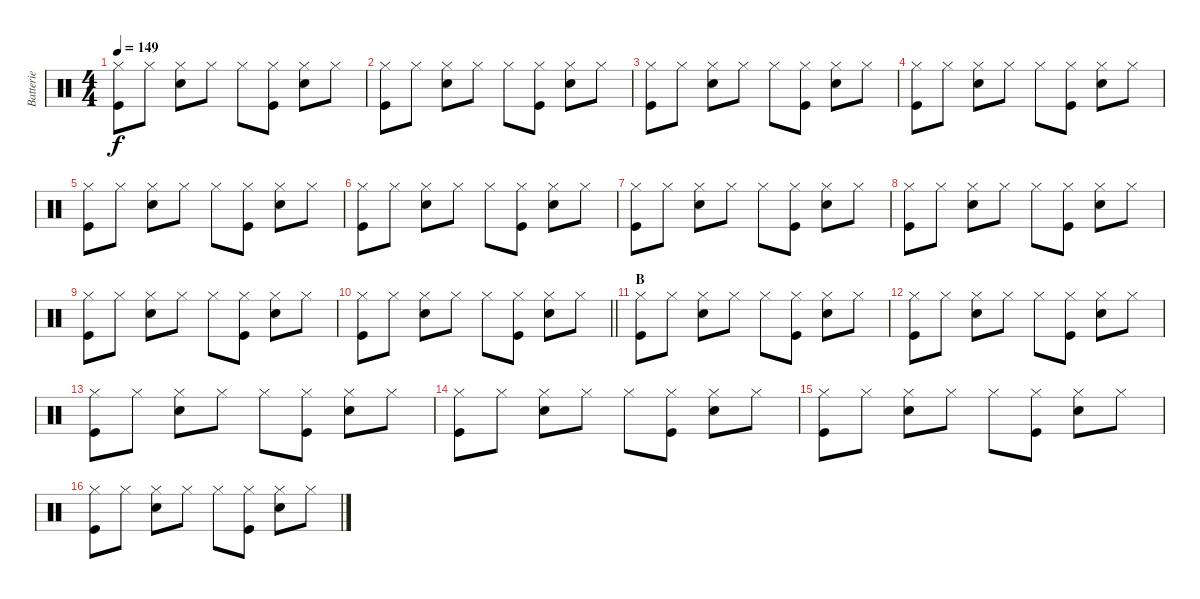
\track ("Batterie" "Batterie") {instrument percussion}
\staff {score}
\articulation defaults
\ts (4 4)
\tempo 149
\clef neutral
\ks c
("Hi-Hat (closed)" "Kick (hit)").8{dy f} "Hi-Hat (closed)".8 ("Hi-Hat (closed)" "Snare (hit) 2").8 "Hi-Hat (closed)".8 "Hi-Hat (closed)".8 ("Hi-Hat (closed)" "Kick (hit)").8 ("Hi-Hat (closed)" "Snare (hit) 2").8 "Hi-Hat (closed)".8 |
("Hi-Hat (closed)" "Kick (hit)").8 "Hi-Hat (closed)".8 ("Hi-Hat (closed)" "Snare (hit) 2").8 "Hi-Hat (closed)".8 "Hi-Hat (closed)".8 ("Hi-Hat (closed)" "Kick (hit)").8 ("Hi-Hat (closed)" "Snare (hit) 2").8 "Hi-Hat (closed)".8 |
("Hi-Hat (closed)" "Kick (hit)").8 "Hi-Hat (closed)".8 ("Hi-Hat (closed)" "Snare (hit) 2").8 "Hi-Hat (closed)".8 "Hi-Hat (closed)".8 ("Hi-Hat (closed)" "Kick (hit)").8 ("Hi-Hat (closed)" "Snare (hit) 2").8 "Hi-Hat (closed)".8 |
("Hi-Hat (closed)" "Kick (hit)").8 "Hi-Hat (closed)".8 ("Hi-Hat (closed)" "Snare (hit) 2").8 "Hi-Hat (closed)".8 "Hi-Hat (closed)".8 ("Hi-Hat (closed)" "Kick (hit)").8 ("Hi-Hat (closed)" "Snare (hit) 2").8 "Hi-Hat (closed)".8 |
("Hi-Hat (closed)" "Kick (hit)").8 "Hi-Hat (closed)".8 ("Hi-Hat (closed)" "Snare (hit) 2").8 "Hi-Hat (closed)".8 "Hi-Hat (closed)".8 ("Hi-Hat (closed)" "Kick (hit)").8 ("Hi-Hat (closed)" "Snare (hit) 2").8 "Hi-Hat (closed)".8 |
("Hi-Hat (closed)" "Kick (hit)").8 "Hi-Hat (closed)".8 ("Hi-Hat (closed)" "Snare (hit) 2").8 "Hi-Hat (closed)".8 "Hi-Hat (closed)".8 ("Hi-Hat (closed)" "Kick (hit)").8 ("Hi-Hat (closed)" "Snare (hit) 2").8 "Hi-Hat (closed)".8 |
("Hi-Hat (closed)" "Kick (hit)").8 "Hi-Hat (closed)".8 ("Hi-Hat (closed)" "Snare (hit) 2").8 "Hi-Hat (closed)".8 "Hi-Hat (closed)".8 ("Hi-Hat (closed)" "Kick (hit)").8 ("Hi-Hat (closed)" "Snare (hit) 2").8 "Hi-Hat (closed)".8 |
("Hi-Hat (closed)" "Kick (hit)").8 "Hi-Hat (closed)".8 ("Hi-Hat (closed)" "Snare (hit) 2").8 "Hi-Hat (closed)".8 "Hi-Hat (closed)".8 ("Hi-Hat (closed)" "Kick (hit)").8 ("Hi-Hat (closed)" "Snare (hit) 2").8 "Hi-Hat (closed)".8 |
("Hi-Hat (closed)" "Kick (hit)").8 "Hi-Hat (closed)".8 ("Hi-Hat (closed)" "Snare (hit) 2").8 "Hi-Hat (closed)".8 "Hi-Hat (closed)".8 ("Hi-Hat (closed)" "Kick (hit)").8 ("Hi-Hat (closed)" "Snare (hit) 2").8 "Hi-Hat (closed)".8 |
\barLineRight lightlight
("Hi-Hat (closed)" "Kick (hit)").8 "Hi-Hat (closed)".8 ("Hi-Hat (closed)" "Snare (hit) 2").8 "Hi-Hat (closed)".8 "Hi-Hat (closed)".8 ("Hi-Hat (closed)" "Kick (hit)").8 ("Hi-Hat (closed)" "Snare (hit) 2").8 "Hi-Hat (closed)".8 |
\section ("" "B")
("Hi-Hat (closed)" "Kick (hit)").8 "Hi-Hat (closed)".8 ("Hi-Hat (closed)" "Snare (hit) 2").8 "Hi-Hat (closed)".8 "Hi-Hat (closed)".8 ("Hi-Hat (closed)" "Kick (hit)").8 ("Hi-Hat (closed)" "Snare (hit) 2").8 "Hi-Hat (closed)".8 |
("Hi-Hat (closed)" "Kick (hit)").8 "Hi-Hat (closed)".8 ("Hi-Hat (closed)" "Snare (hit) 2").8 "Hi-Hat (closed)".8 "Hi-Hat (closed)".8 ("Hi-Hat (closed)" "Kick (hit)").8 ("Hi-Hat (closed)" "Snare (hit) 2").8 "Hi-Hat (closed)".8 |
("Hi-Hat (closed)" "Kick (hit)").8 "Hi-Hat (closed)".8 ("Hi-Hat (closed)" "Snare (hit) 2").8 "Hi-Hat (closed)".8 "Hi-Hat (closed)".8 ("Hi-Hat (closed)" "Kick (hit)").8 ("Hi-Hat (closed)" "Snare (hit) 2").8 "Hi-Hat (closed)".8 |
("Hi-Hat (closed)" "Kick (hit)").8 "Hi-Hat (closed)".8 ("Hi-Hat (closed)" "Snare (hit) 2").8 "Hi-Hat (closed)".8 "Hi-Hat (closed)".8 ("Hi-Hat (closed)" "Kick (hit)").8 ("Hi-Hat (closed)" "Snare (hit) 2").8 "Hi-Hat (closed)".8 |
("Hi-Hat (closed)" "Kick (hit)").8 "Hi-Hat (closed)".8 ("Hi-Hat (closed)" "Snare (hit) 2").8 "Hi-Hat (closed)".8 "Hi-Hat (closed)".8 ("Hi-Hat (closed)" "Kick (hit)").8 ("Hi-Hat (closed)" "Snare (hit) 2").8 "Hi-Hat (closed)".8 |
("Hi-Hat (closed)" "Kick (hit)").8 "Hi-Hat (closed)".8 ("Hi-Hat (closed)" "Snare (hit) 2").8 "Hi-Hat (closed)".8 "Hi-Hat (closed)".8 ("Hi-Hat (closed)" "Kick (hit)").8 ("Hi-Hat (closed)" "Snare (hit) 2").8 "Hi-Hat (closed)".8
